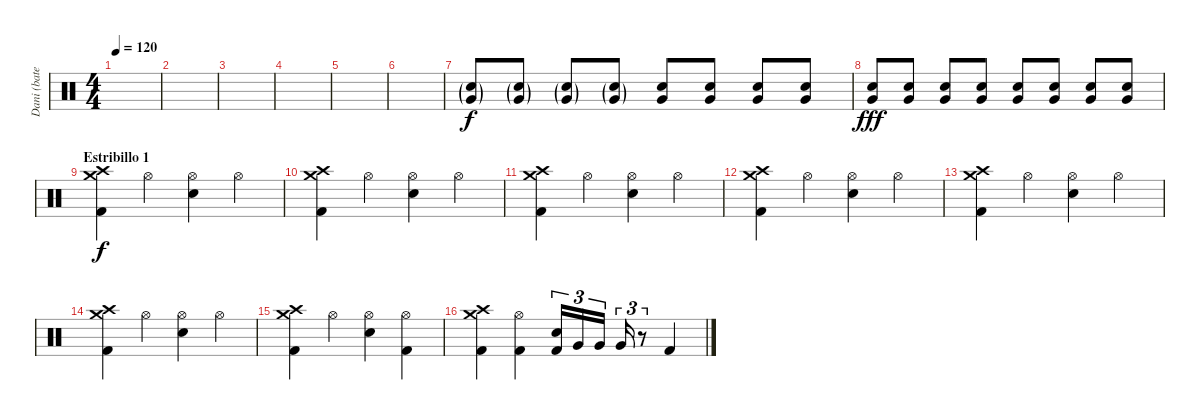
\track ("Dani (batería)" "Dani (bate") {instrument percussion}
\staff {score}
\articulation defaults
\ts (4 4)
\tempo 120
\clef neutral
\ks c
|
|
|
|
|
|
("Very Low Tom (hit)"{g} "Electric Snare (hit)"{g}).8 ("Very Low Tom (hit)"{g} "Electric Snare (hit)"{g}).8 ("Very Low Tom (hit)"{g} "Electric Snare (hit)"{g}).8 ("Very Low Tom (hit)"{g} "Electric Snare (hit)"{g}).8 ("Very Low Tom (hit)" "Electric Snare (hit)").8{dy f} ("Very Low Tom (hit)" "Electric Snare (hit)").8 ("Very Low Tom (hit)" "Electric Snare (hit)").8 ("Very Low Tom (hit)" "Electric Snare (hit)").8 |
("Very Low Tom (hit)" "Electric Snare (hit)").8{dy fff} ("Very Low Tom (hit)" "Electric Snare (hit)").8 ("Very Low Tom (hit)" "Electric Snare (hit)").8 ("Very Low Tom (hit)" "Electric Snare (hit)").8 ("Very Low Tom (hit)" "Electric Snare (hit)").8 ("Very Low Tom (hit)" "Electric Snare (hit)").8 ("Very Low Tom (hit)" "Electric Snare (hit)").8 ("Very Low Tom (hit)" "Electric Snare (hit)").8 |
\section ("" "Estribillo 1")
("Crash high (hit)" "Crash medium (hit)" "Kick (hit) 2").4{dy f} "Hi-Hat (open)".4 ("Hi-Hat (open)" "Electric Snare (hit)").4 "Hi-Hat (open)".4 |
("Crash high (hit)" "Crash medium (hit)" "Kick (hit) 2").4 "Hi-Hat (open)".4 ("Hi-Hat (open)" "Electric Snare (hit)").4 "Hi-Hat (open)".4 |
("Crash high (hit)" "Crash medium (hit)" "Kick (hit) 2").4 "Hi-Hat (open)".4 ("Hi-Hat (open)" "Electric Snare (hit)").4 "Hi-Hat (open)".4 |
("Crash high (hit)" "Crash medium (hit)" "Kick (hit) 2").4 "Hi-Hat (open)".4 ("Hi-Hat (open)" "Electric Snare (hit)").4 "Hi-Hat (open)".4 |
("Crash high (hit)" "Crash medium (hit)" "Kick (hit) 2").4 "Hi-Hat (open)".4 ("Hi-Hat (open)" "Electric Snare (hit)").4 "Hi-Hat (open)".4 |
("Crash high (hit)" "Crash medium (hit)" "Kick (hit) 2").4 "Hi-Hat (open)".4 ("Hi-Hat (open)" "Electric Snare (hit)").4 "Hi-Hat (open)".4 |
("Crash high (hit)" "Crash medium (hit)" "Kick (hit) 2").4 "Hi-Hat (open)".4 ("Hi-Hat (open)" "Electric Snare (hit)").4 ("Hi-Hat (open)" "Kick (hit) 2").4 |
("Crash high (hit)" "Crash medium (hit)" "Kick (hit) 2").4 ("Hi-Hat (open)" "Kick (hit) 2").4 ("Electric Snare (hit)" "Kick (hit) 2").16{tu (3 2)} "Very Low Tom (hit)".16{tu (3 2)} "Very Low Tom (hit)".16{tu (3 2)} "Very Low Tom (hit)".16{tu (3 2)} r.8{tu (3 2)} "Kick (hit) 2".4
